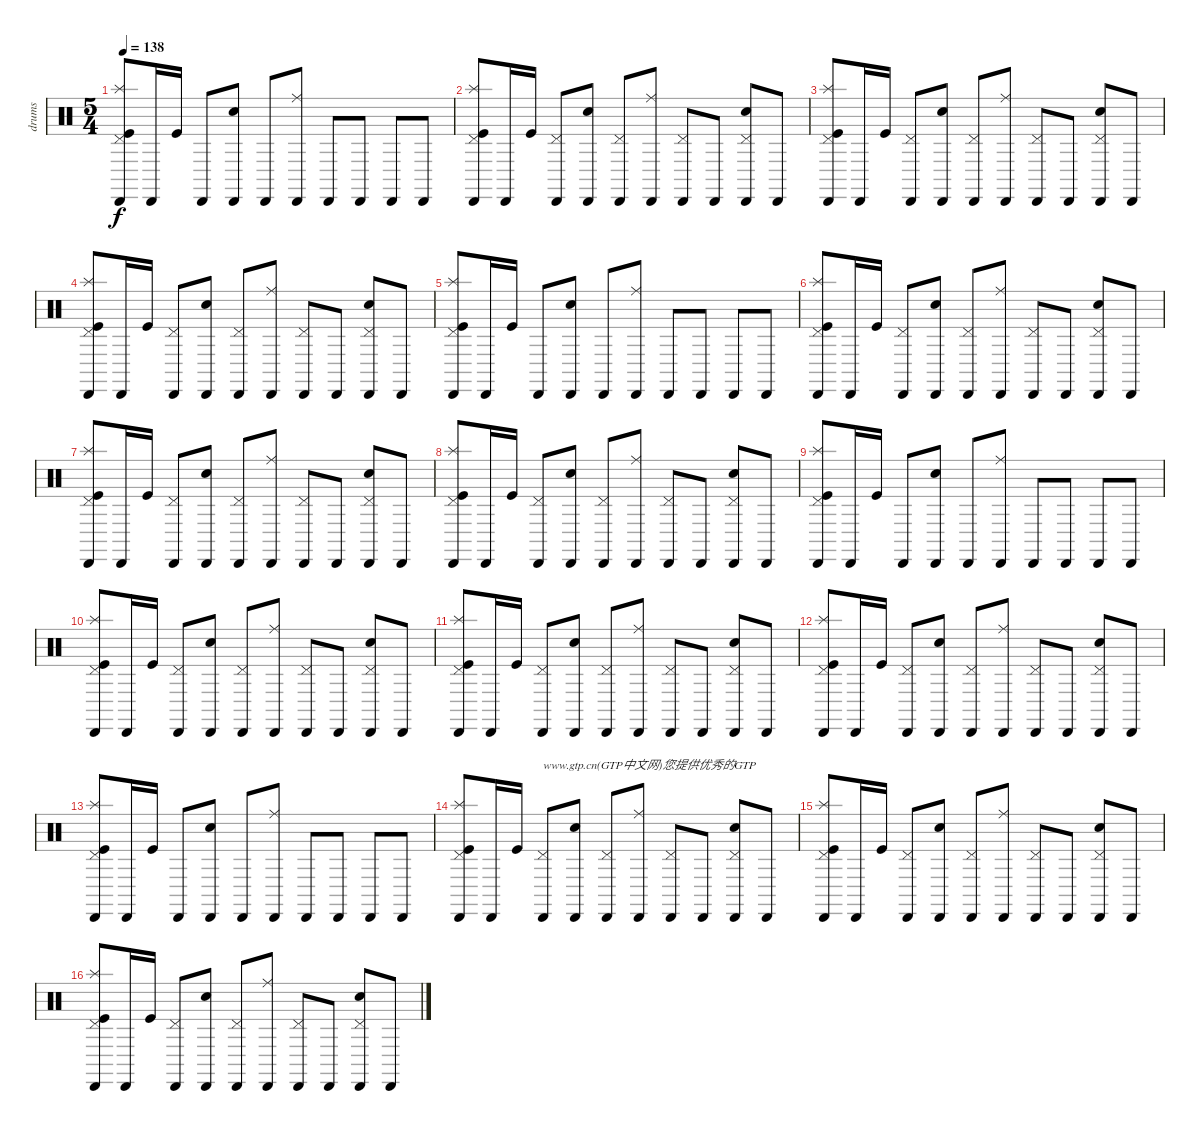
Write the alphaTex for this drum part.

\track ("drums" "drums") {instrument percussion}
\staff {score}
\articulation defaults
\ts (5 4)
\tempo 138
\clef neutral
\ks c
("Pedal Hi-Hat (hit)" "Splash (hit)" "Kick (hit)" "Cabasa (hit)").8{dy f} "Cabasa (hit)".16 "Kick (hit)".16 "Cabasa (hit)".8 ("Snare (hit) 2" "Cabasa (hit)").8 "Cabasa (hit)".8 ("Ride (middle)" "Cabasa (hit)").8 "Cabasa (hit)".8 "Cabasa (hit)".8 "Cabasa (hit)".8 "Cabasa (hit)".8 |
("Cabasa (hit)" "Kick (hit)" "Pedal Hi-Hat (hit)" "Splash (hit)").8 "Cabasa (hit)".16 "Kick (hit)".16 ("Pedal Hi-Hat (hit)" "Cabasa (hit)").8 ("Snare (hit) 2" "Cabasa (hit)").8 ("Pedal Hi-Hat (hit)" "Cabasa (hit)").8 ("Ride (middle)" "Cabasa (hit)").8 ("Pedal Hi-Hat (hit)" "Cabasa (hit)").8 "Cabasa (hit)".8 ("Snare (hit) 2" "Pedal Hi-Hat (hit)" "Cabasa (hit)").8 "Cabasa (hit)".8 |
("Pedal Hi-Hat (hit)" "Splash (hit)" "Kick (hit)" "Cabasa (hit)").8 "Cabasa (hit)".16 "Kick (hit)".16 ("Pedal Hi-Hat (hit)" "Cabasa (hit)").8 ("Snare (hit) 2" "Cabasa (hit)").8 ("Pedal Hi-Hat (hit)" "Cabasa (hit)").8 ("Ride (middle)" "Cabasa (hit)").8 ("Pedal Hi-Hat (hit)" "Cabasa (hit)").8 "Cabasa (hit)".8 ("Snare (hit) 2" "Pedal Hi-Hat (hit)" "Cabasa (hit)").8 "Cabasa (hit)".8 |
("Kick (hit)" "Pedal Hi-Hat (hit)" "Splash (hit)" "Cabasa (hit)").8 "Cabasa (hit)".16 "Kick (hit)".16 ("Pedal Hi-Hat (hit)" "Cabasa (hit)").8 ("Snare (hit) 2" "Cabasa (hit)").8 ("Pedal Hi-Hat (hit)" "Cabasa (hit)").8 ("Ride (middle)" "Cabasa (hit)").8 ("Pedal Hi-Hat (hit)" "Cabasa (hit)").8 "Cabasa (hit)".8 ("Snare (hit) 2" "Pedal Hi-Hat (hit)" "Cabasa (hit)").8 "Cabasa (hit)".8 |
("Pedal Hi-Hat (hit)" "Splash (hit)" "Kick (hit)" "Cabasa (hit)").8 "Cabasa (hit)".16 "Kick (hit)".16 "Cabasa (hit)".8 ("Snare (hit) 2" "Cabasa (hit)").8 "Cabasa (hit)".8 ("Ride (middle)" "Cabasa (hit)").8 "Cabasa (hit)".8 "Cabasa (hit)".8 "Cabasa (hit)".8 "Cabasa (hit)".8 |
("Kick (hit)" "Pedal Hi-Hat (hit)" "Splash (hit)" "Cabasa (hit)").8 "Cabasa (hit)".16 "Kick (hit)".16 ("Pedal Hi-Hat (hit)" "Cabasa (hit)").8 ("Snare (hit) 2" "Cabasa (hit)").8 ("Pedal Hi-Hat (hit)" "Cabasa (hit)").8 ("Ride (middle)" "Cabasa (hit)").8 ("Pedal Hi-Hat (hit)" "Cabasa (hit)").8 "Cabasa (hit)".8 ("Snare (hit) 2" "Pedal Hi-Hat (hit)" "Cabasa (hit)").8 "Cabasa (hit)".8 |
("Pedal Hi-Hat (hit)" "Splash (hit)" "Kick (hit)" "Cabasa (hit)").8 "Cabasa (hit)".16 "Kick (hit)".16 ("Pedal Hi-Hat (hit)" "Cabasa (hit)").8 ("Snare (hit) 2" "Cabasa (hit)").8 ("Pedal Hi-Hat (hit)" "Cabasa (hit)").8 ("Ride (middle)" "Cabasa (hit)").8 ("Pedal Hi-Hat (hit)" "Cabasa (hit)").8 "Cabasa (hit)".8 ("Snare (hit) 2" "Pedal Hi-Hat (hit)" "Cabasa (hit)").8 "Cabasa (hit)".8 |
("Kick (hit)" "Pedal Hi-Hat (hit)" "Splash (hit)" "Cabasa (hit)").8 "Cabasa (hit)".16 "Kick (hit)".16 ("Pedal Hi-Hat (hit)" "Cabasa (hit)").8 ("Snare (hit) 2" "Cabasa (hit)").8 ("Pedal Hi-Hat (hit)" "Cabasa (hit)").8 ("Ride (middle)" "Cabasa (hit)").8 ("Pedal Hi-Hat (hit)" "Cabasa (hit)").8 "Cabasa (hit)".8 ("Snare (hit) 2" "Pedal Hi-Hat (hit)" "Cabasa (hit)").8 "Cabasa (hit)".8 |
("Pedal Hi-Hat (hit)" "Splash (hit)" "Kick (hit)" "Cabasa (hit)").8 "Cabasa (hit)".16 "Kick (hit)".16 "Cabasa (hit)".8 ("Snare (hit) 2" "Cabasa (hit)").8 "Cabasa (hit)".8 ("Ride (middle)" "Cabasa (hit)").8 "Cabasa (hit)".8 "Cabasa (hit)".8 "Cabasa (hit)".8 "Cabasa (hit)".8 |
("Kick (hit)" "Pedal Hi-Hat (hit)" "Splash (hit)" "Cabasa (hit)").8 "Cabasa (hit)".16 "Kick (hit)".16 ("Pedal Hi-Hat (hit)" "Cabasa (hit)").8 ("Snare (hit) 2" "Cabasa (hit)").8 ("Pedal Hi-Hat (hit)" "Cabasa (hit)").8 ("Ride (middle)" "Cabasa (hit)").8 ("Pedal Hi-Hat (hit)" "Cabasa (hit)").8 "Cabasa (hit)".8 ("Snare (hit) 2" "Pedal Hi-Hat (hit)" "Cabasa (hit)").8 "Cabasa (hit)".8 |
("Pedal Hi-Hat (hit)" "Splash (hit)" "Kick (hit)" "Cabasa (hit)").8 "Cabasa (hit)".16 "Kick (hit)".16 ("Pedal Hi-Hat (hit)" "Cabasa (hit)").8 ("Snare (hit) 2" "Cabasa (hit)").8 ("Pedal Hi-Hat (hit)" "Cabasa (hit)").8 ("Ride (middle)" "Cabasa (hit)").8 ("Pedal Hi-Hat (hit)" "Cabasa (hit)").8 "Cabasa (hit)".8 ("Snare (hit) 2" "Pedal Hi-Hat (hit)" "Cabasa (hit)").8 "Cabasa (hit)".8 |
("Kick (hit)" "Pedal Hi-Hat (hit)" "Splash (hit)" "Cabasa (hit)").8 "Cabasa (hit)".16 "Kick (hit)".16 ("Pedal Hi-Hat (hit)" "Cabasa (hit)").8 ("Snare (hit) 2" "Cabasa (hit)").8 ("Pedal Hi-Hat (hit)" "Cabasa (hit)").8 ("Ride (middle)" "Cabasa (hit)").8 ("Pedal Hi-Hat (hit)" "Cabasa (hit)").8 "Cabasa (hit)".8 ("Snare (hit) 2" "Pedal Hi-Hat (hit)" "Cabasa (hit)").8 "Cabasa (hit)".8 |
("Pedal Hi-Hat (hit)" "Splash (hit)" "Kick (hit)" "Cabasa (hit)").8 "Cabasa (hit)".16 "Kick (hit)".16 "Cabasa (hit)".8 ("Snare (hit) 2" "Cabasa (hit)").8 "Cabasa (hit)".8 ("Ride (middle)" "Cabasa (hit)").8 "Cabasa (hit)".8 "Cabasa (hit)".8 "Cabasa (hit)".8 "Cabasa (hit)".8 |
("Kick (hit)" "Pedal Hi-Hat (hit)" "Splash (hit)" "Cabasa (hit)").8 "Cabasa (hit)".16 "Kick (hit)".16 ("Pedal Hi-Hat (hit)" "Cabasa (hit)").8{txt "www.gtp.cn(GTP中文网)您提供优秀的GTP"} ("Snare (hit) 2" "Cabasa (hit)").8 ("Pedal Hi-Hat (hit)" "Cabasa (hit)").8 ("Ride (middle)" "Cabasa (hit)").8 ("Pedal Hi-Hat (hit)" "Cabasa (hit)").8 "Cabasa (hit)".8 ("Snare (hit) 2" "Pedal Hi-Hat (hit)" "Cabasa (hit)").8 "Cabasa (hit)".8 |
("Pedal Hi-Hat (hit)" "Splash (hit)" "Kick (hit)" "Cabasa (hit)").8 "Cabasa (hit)".16 "Kick (hit)".16 ("Pedal Hi-Hat (hit)" "Cabasa (hit)").8 ("Snare (hit) 2" "Cabasa (hit)").8 ("Pedal Hi-Hat (hit)" "Cabasa (hit)").8 ("Ride (middle)" "Cabasa (hit)").8 ("Pedal Hi-Hat (hit)" "Cabasa (hit)").8 "Cabasa (hit)".8 ("Snare (hit) 2" "Pedal Hi-Hat (hit)" "Cabasa (hit)").8 "Cabasa (hit)".8 |
("Kick (hit)" "Pedal Hi-Hat (hit)" "Splash (hit)" "Cabasa (hit)").8 "Cabasa (hit)".16 "Kick (hit)".16 ("Pedal Hi-Hat (hit)" "Cabasa (hit)").8 ("Snare (hit) 2" "Cabasa (hit)").8 ("Pedal Hi-Hat (hit)" "Cabasa (hit)").8 ("Ride (middle)" "Cabasa (hit)").8 ("Pedal Hi-Hat (hit)" "Cabasa (hit)").8 "Cabasa (hit)".8 ("Snare (hit) 2" "Pedal Hi-Hat (hit)" "Cabasa (hit)").8 "Cabasa (hit)".8
